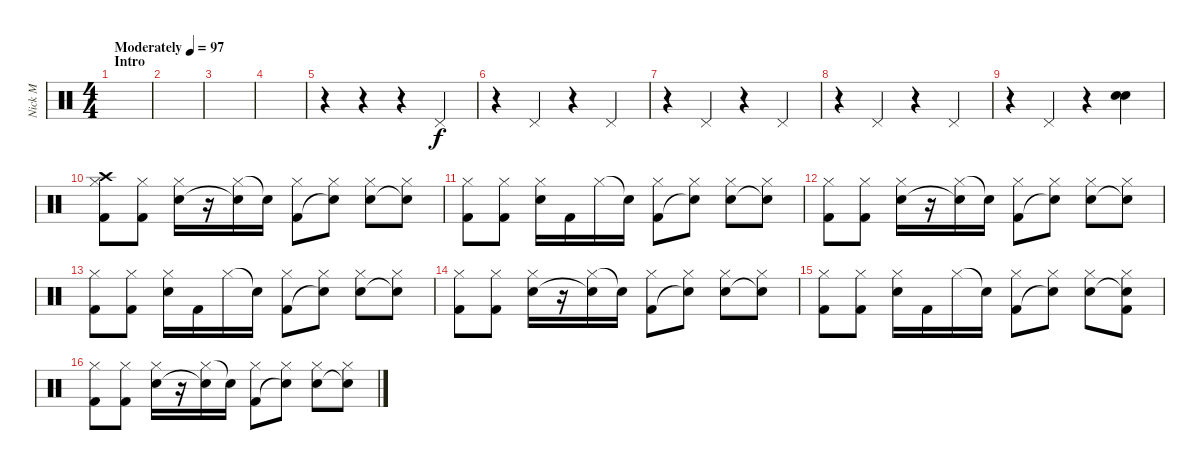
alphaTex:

\track ("Nick M" "Nick M") {instrument percussion}
\staff {score}
\articulation defaults
\ts (4 4)
\section ("" "Intro")
\tempo (97 "Moderately")
\clef neutral
\ks c
|
|
|
|
r.4 r.4 r.4 "Pedal Hi-Hat (hit)".4 |
r.4 "Pedal Hi-Hat (hit)".4 r.4 "Pedal Hi-Hat (hit)".4 |
r.4 "Pedal Hi-Hat (hit)".4 r.4 "Pedal Hi-Hat (hit)".4 |
r.4 "Pedal Hi-Hat (hit)".4 r.4 "Pedal Hi-Hat (hit)".4 |
r.4 "Pedal Hi-Hat (hit)".4 r.4 ("Electric Snare (hit)" "Snare (hit) 2").4 |
("Hi-Hat (closed)" "Crash high (hit)" "Kick (hit) 2").8 ("Hi-Hat (closed)" "Kick (hit) 2").8 ("Hi-Hat (closed)" "Snare (hit) 2").16 r.16 ("Hi-Hat (closed)" "Snare (hit)"{t}).16 "Snare (hit)"{t}.16 ("Hi-Hat (closed)" "Kick (hit) 2").8 ("Hi-Hat (closed)" "Snare (hit)"{t}).8 ("Hi-Hat (closed)" "Snare (hit) 2").8 ("Hi-Hat (closed)" "Snare (hit)"{t}).8 |
("Hi-Hat (closed)" "Kick (hit) 2").8 ("Hi-Hat (closed)" "Kick (hit) 2").8 ("Hi-Hat (closed)" "Snare (hit) 2").16 "Kick (hit) 2".16 "Hi-Hat (closed)".16 "Snare (hit)"{t}.16 ("Hi-Hat (closed)" "Kick (hit) 2").8 ("Hi-Hat (closed)" "Snare (hit)"{t}).8 ("Hi-Hat (closed)" "Snare (hit) 2").8 ("Hi-Hat (closed)" "Snare (hit)"{t}).8 |
("Hi-Hat (closed)" "Kick (hit) 2").8 ("Hi-Hat (closed)" "Kick (hit) 2").8 ("Hi-Hat (closed)" "Snare (hit) 2").16 r.16 ("Hi-Hat (closed)" "Snare (hit)"{t}).16 "Snare (hit)"{t}.16 ("Hi-Hat (closed)" "Kick (hit) 2").8 ("Hi-Hat (closed)" "Snare (hit)"{t}).8 ("Hi-Hat (closed)" "Snare (hit) 2").8 ("Hi-Hat (closed)" "Snare (hit)"{t}).8 |
("Hi-Hat (closed)" "Kick (hit) 2").8 ("Hi-Hat (closed)" "Kick (hit) 2").8 ("Hi-Hat (closed)" "Snare (hit) 2").16 "Kick (hit) 2".16 "Hi-Hat (closed)".16 "Snare (hit)"{t}.16 ("Hi-Hat (closed)" "Kick (hit) 2").8 ("Hi-Hat (closed)" "Snare (hit)"{t}).8 ("Hi-Hat (closed)" "Snare (hit) 2").8 ("Hi-Hat (closed)" "Snare (hit)"{t}).8 |
("Hi-Hat (closed)" "Kick (hit) 2").8 ("Hi-Hat (closed)" "Kick (hit) 2").8 ("Hi-Hat (closed)" "Snare (hit) 2").16 r.16 ("Hi-Hat (closed)" "Snare (hit)"{t}).16 "Snare (hit)"{t}.16 ("Hi-Hat (closed)" "Kick (hit) 2").8 ("Hi-Hat (closed)" "Snare (hit)"{t}).8 ("Hi-Hat (closed)" "Snare (hit) 2").8 ("Hi-Hat (closed)" "Snare (hit)"{t}).8 |
("Hi-Hat (closed)" "Kick (hit) 2").8 ("Hi-Hat (closed)" "Kick (hit) 2").8 ("Hi-Hat (closed)" "Snare (hit) 2").16 "Kick (hit) 2".16 "Hi-Hat (closed)".16 "Snare (hit)"{t}.16 ("Hi-Hat (closed)" "Kick (hit) 2").8 ("Hi-Hat (closed)" "Snare (hit)"{t}).8 ("Hi-Hat (closed)" "Snare (hit) 2").8 ("Hi-Hat (closed)" "Snare (hit)"{t} "Kick (hit) 2").8 |
("Hi-Hat (closed)" "Kick (hit) 2").8 ("Hi-Hat (closed)" "Kick (hit) 2").8 ("Hi-Hat (closed)" "Snare (hit) 2").16 r.16 ("Hi-Hat (closed)" "Snare (hit)"{t}).16 "Snare (hit)"{t}.16 ("Hi-Hat (closed)" "Kick (hit) 2").8 ("Hi-Hat (closed)" "Snare (hit)"{t}).8 ("Hi-Hat (closed)" "Snare (hit) 2").8 ("Hi-Hat (closed)" "Snare (hit)"{t}).8
